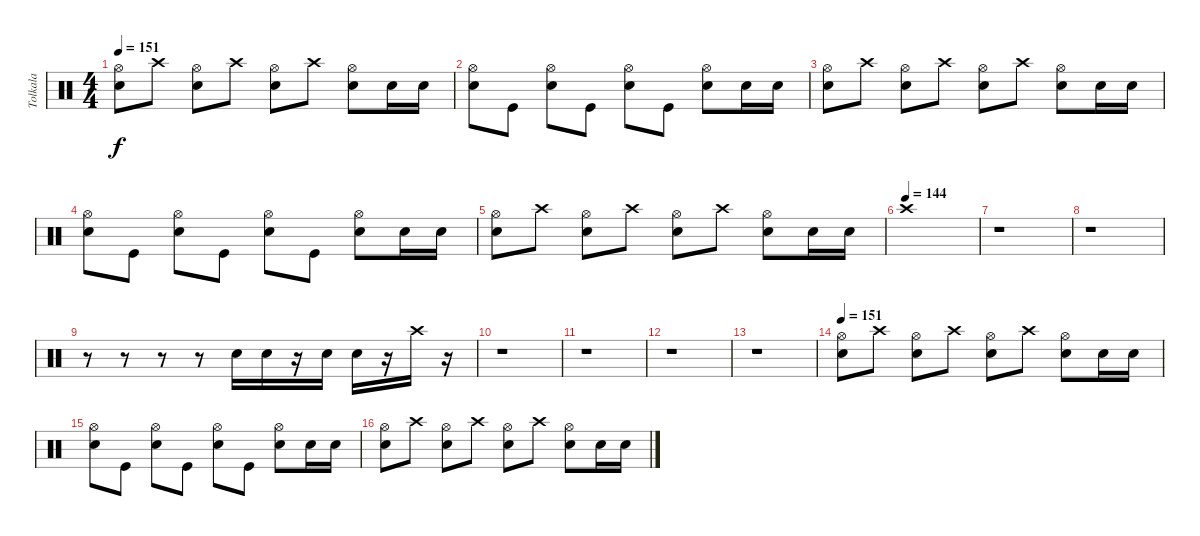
\track ("Tolkala" "Tolkala") {instrument percussion}
\staff {score}
\articulation defaults
\ts (4 4)
\tempo 151
\clef neutral
\ks c
("Electric Snare (hit)" "Hi-Hat (open)").8{dy f} "Crash high (hit)".8 ("Electric Snare (hit)" "Hi-Hat (open)").8 "Crash high (hit)".8 ("Electric Snare (hit)" "Hi-Hat (open)").8 "Crash high (hit)".8 ("Electric Snare (hit)" "Hi-Hat (open)").8 "Electric Snare (hit)".16 "Electric Snare (hit)".16 |
("Electric Snare (hit)" "Hi-Hat (open)").8 "Kick (hit)".8 ("Electric Snare (hit)" "Hi-Hat (open)").8 "Kick (hit)".8 ("Electric Snare (hit)" "Hi-Hat (open)").8 "Kick (hit)".8 ("Electric Snare (hit)" "Hi-Hat (open)").8 "Electric Snare (hit)".16 "Electric Snare (hit)".16 |
("Electric Snare (hit)" "Hi-Hat (open)").8 "Crash high (hit)".8 ("Electric Snare (hit)" "Hi-Hat (open)").8 "Crash high (hit)".8 ("Electric Snare (hit)" "Hi-Hat (open)").8 "Crash high (hit)".8 ("Electric Snare (hit)" "Hi-Hat (open)").8 "Electric Snare (hit)".16 "Electric Snare (hit)".16 |
("Electric Snare (hit)" "Hi-Hat (open)").8 "Kick (hit)".8 ("Electric Snare (hit)" "Hi-Hat (open)").8 "Kick (hit)".8 ("Electric Snare (hit)" "Hi-Hat (open)").8 "Kick (hit)".8 ("Electric Snare (hit)" "Hi-Hat (open)").8 "Electric Snare (hit)".16 "Electric Snare (hit)".16 |
("Electric Snare (hit)" "Hi-Hat (open)").8 "Crash high (hit)".8 ("Electric Snare (hit)" "Hi-Hat (open)").8 "Crash high (hit)".8 ("Electric Snare (hit)" "Hi-Hat (open)").8 "Crash high (hit)".8 ("Electric Snare (hit)" "Hi-Hat (open)").8 "Electric Snare (hit)".16 "Electric Snare (hit)".16 |
\tempo (144)
"Crash high (hit)".1 |
r.1 |
r.1 |
r.8 r.8 r.8 r.8 "Electric Snare (hit)".16 "Electric Snare (hit)".16 r.16 "Electric Snare (hit)".16 "Electric Snare (hit)".16 r.16 "Crash high (hit)".16 r.16 |
r.1 |
r.1 |
r.1 |
r.1 |
\tempo 151
("Electric Snare (hit)" "Hi-Hat (open)").8 "Crash high (hit)".8 ("Electric Snare (hit)" "Hi-Hat (open)").8 "Crash high (hit)".8 ("Electric Snare (hit)" "Hi-Hat (open)").8 "Crash high (hit)".8 ("Electric Snare (hit)" "Hi-Hat (open)").8 "Electric Snare (hit)".16 "Electric Snare (hit)".16 |
("Electric Snare (hit)" "Hi-Hat (open)").8 "Kick (hit)".8 ("Electric Snare (hit)" "Hi-Hat (open)").8 "Kick (hit)".8 ("Electric Snare (hit)" "Hi-Hat (open)").8 "Kick (hit)".8 ("Electric Snare (hit)" "Hi-Hat (open)").8 "Electric Snare (hit)".16 "Electric Snare (hit)".16 |
("Electric Snare (hit)" "Hi-Hat (open)").8 "Crash high (hit)".8 ("Electric Snare (hit)" "Hi-Hat (open)").8 "Crash high (hit)".8 ("Electric Snare (hit)" "Hi-Hat (open)").8 "Crash high (hit)".8 ("Electric Snare (hit)" "Hi-Hat (open)").8 "Electric Snare (hit)".16 "Electric Snare (hit)".16
